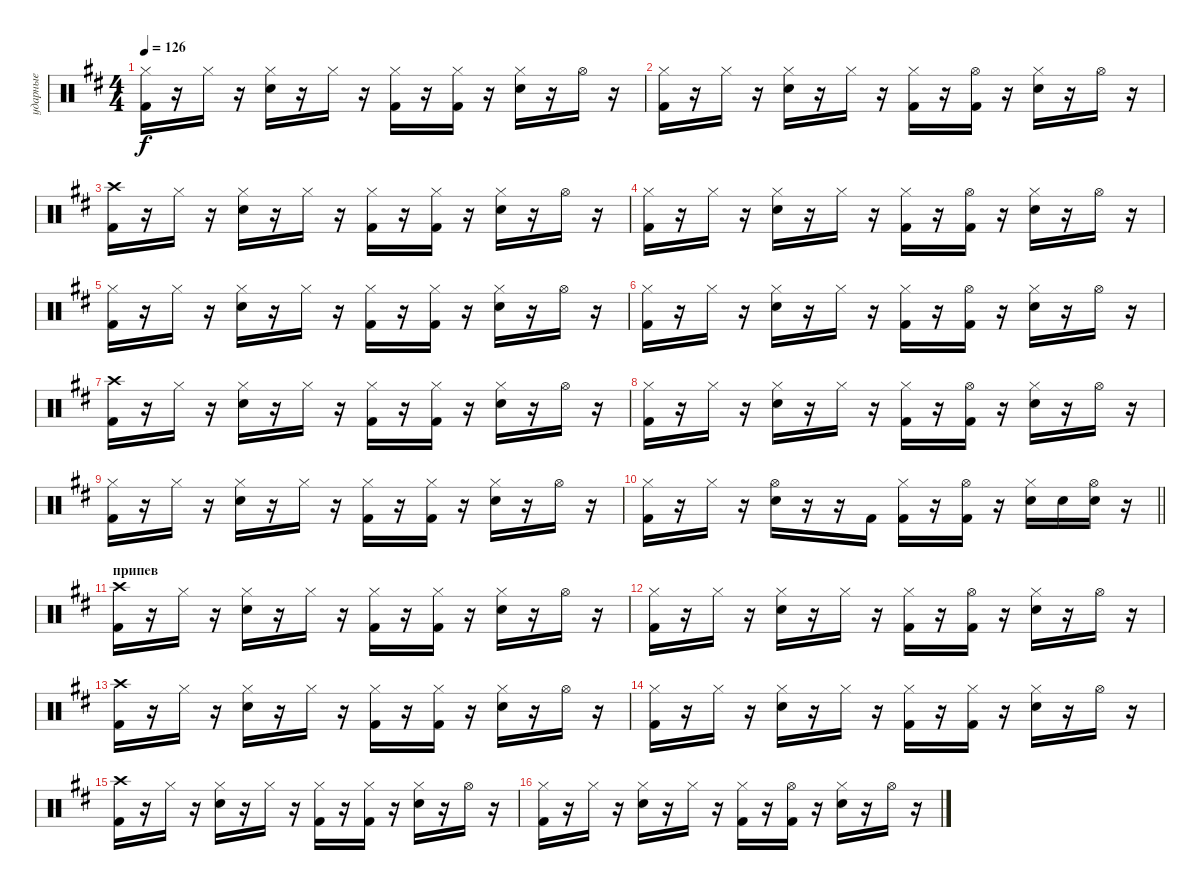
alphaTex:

\track ("ударные" "ударные") {instrument percussion}
\staff {score}
\articulation defaults
\ts (4 4)
\tempo 126
\clef neutral
\ks d
("Hi-Hat (closed)" "Kick (hit) 2").16{dy f} r.16 "Hi-Hat (closed)".16 r.16 ("Hi-Hat (closed)" "Electric Snare (hit)").16 r.16 "Hi-Hat (closed)".16 r.16 ("Hi-Hat (closed)" "Kick (hit) 2").16 r.16 ("Hi-Hat (closed)" "Kick (hit) 2").16 r.16 ("Hi-Hat (closed)" "Electric Snare (hit)").16 r.16 "Hi-Hat (open)".16 r.16 |
("Hi-Hat (closed)" "Kick (hit) 2").16 r.16 "Hi-Hat (closed)".16 r.16 ("Hi-Hat (closed)" "Electric Snare (hit)").16 r.16 "Hi-Hat (closed)".16 r.16 ("Hi-Hat (closed)" "Kick (hit) 2").16 r.16 ("Hi-Hat (open)" "Kick (hit) 2").16 r.16 ("Hi-Hat (closed)" "Electric Snare (hit)").16 r.16 "Hi-Hat (open)".16 r.16 |
("Crash high (hit)" "Kick (hit) 2").16 r.16 "Hi-Hat (closed)".16 r.16 ("Hi-Hat (closed)" "Electric Snare (hit)").16 r.16 "Hi-Hat (closed)".16 r.16 ("Hi-Hat (closed)" "Kick (hit) 2").16 r.16 ("Hi-Hat (closed)" "Kick (hit) 2").16 r.16 ("Hi-Hat (closed)" "Electric Snare (hit)").16 r.16 "Hi-Hat (open)".16 r.16 |
("Hi-Hat (closed)" "Kick (hit) 2").16 r.16 "Hi-Hat (closed)".16 r.16 ("Hi-Hat (closed)" "Electric Snare (hit)").16 r.16 "Hi-Hat (closed)".16 r.16 ("Hi-Hat (closed)" "Kick (hit) 2").16 r.16 ("Hi-Hat (open)" "Kick (hit) 2").16 r.16 ("Hi-Hat (closed)" "Electric Snare (hit)").16 r.16 "Hi-Hat (open)".16 r.16 |
("Hi-Hat (closed)" "Kick (hit) 2").16 r.16 "Hi-Hat (closed)".16 r.16 ("Hi-Hat (closed)" "Electric Snare (hit)").16 r.16 "Hi-Hat (closed)".16 r.16 ("Hi-Hat (closed)" "Kick (hit) 2").16 r.16 ("Hi-Hat (closed)" "Kick (hit) 2").16 r.16 ("Hi-Hat (closed)" "Electric Snare (hit)").16 r.16 "Hi-Hat (open)".16 r.16 |
("Hi-Hat (closed)" "Kick (hit) 2").16 r.16 "Hi-Hat (closed)".16 r.16 ("Hi-Hat (closed)" "Electric Snare (hit)").16 r.16 "Hi-Hat (closed)".16 r.16 ("Hi-Hat (closed)" "Kick (hit) 2").16 r.16 ("Hi-Hat (open)" "Kick (hit) 2").16 r.16 ("Hi-Hat (closed)" "Electric Snare (hit)").16 r.16 "Hi-Hat (open)".16 r.16 |
("Crash high (hit)" "Kick (hit) 2").16 r.16 "Hi-Hat (closed)".16 r.16 ("Hi-Hat (closed)" "Electric Snare (hit)").16 r.16 "Hi-Hat (closed)".16 r.16 ("Hi-Hat (closed)" "Kick (hit) 2").16 r.16 ("Hi-Hat (closed)" "Kick (hit) 2").16 r.16 ("Hi-Hat (closed)" "Electric Snare (hit)").16 r.16 "Hi-Hat (open)".16 r.16 |
("Hi-Hat (closed)" "Kick (hit) 2").16 r.16 "Hi-Hat (closed)".16 r.16 ("Hi-Hat (closed)" "Electric Snare (hit)").16 r.16 "Hi-Hat (closed)".16 r.16 ("Hi-Hat (closed)" "Kick (hit) 2").16 r.16 ("Hi-Hat (open)" "Kick (hit) 2").16 r.16 ("Hi-Hat (closed)" "Electric Snare (hit)").16 r.16 "Hi-Hat (open)".16 r.16 |
("Hi-Hat (closed)" "Kick (hit) 2").16 r.16 "Hi-Hat (closed)".16 r.16 ("Hi-Hat (closed)" "Electric Snare (hit)").16 r.16 "Hi-Hat (closed)".16 r.16 ("Hi-Hat (closed)" "Kick (hit) 2").16 r.16 ("Hi-Hat (closed)" "Kick (hit) 2").16 r.16 ("Hi-Hat (closed)" "Electric Snare (hit)").16 r.16 "Hi-Hat (open)".16 r.16 |
\barLineRight lightlight
("Hi-Hat (closed)" "Kick (hit) 2").16 r.16 "Hi-Hat (closed)".16 r.16 ("Hi-Hat (open)" "Electric Snare (hit)").16 r.16 r.16 "Kick (hit) 2".16 ("Hi-Hat (closed)" "Kick (hit) 2").16 r.16 ("Hi-Hat (open)" "Kick (hit) 2").16 r.16 ("Hi-Hat (closed)" "Electric Snare (hit)").16 "Electric Snare (hit)".16 ("Electric Snare (hit)" "Hi-Hat (open)").16 r.16 |
\section ("" "припев")
("Crash high (hit)" "Kick (hit) 2").16 r.16 "Hi-Hat (closed)".16 r.16 ("Hi-Hat (closed)" "Electric Snare (hit)").16 r.16 "Hi-Hat (closed)".16 r.16 ("Hi-Hat (closed)" "Kick (hit) 2").16 r.16 ("Hi-Hat (closed)" "Kick (hit) 2").16 r.16 ("Hi-Hat (closed)" "Electric Snare (hit)").16 r.16 "Hi-Hat (open)".16 r.16 |
("Hi-Hat (closed)" "Kick (hit) 2").16 r.16 "Hi-Hat (closed)".16 r.16 ("Hi-Hat (closed)" "Electric Snare (hit)").16 r.16 "Hi-Hat (closed)".16 r.16 ("Hi-Hat (closed)" "Kick (hit) 2").16 r.16 ("Hi-Hat (open)" "Kick (hit) 2").16 r.16 ("Hi-Hat (closed)" "Electric Snare (hit)").16 r.16 "Hi-Hat (open)".16 r.16 |
("Crash high (hit)" "Kick (hit) 2").16 r.16 "Hi-Hat (closed)".16 r.16 ("Hi-Hat (closed)" "Electric Snare (hit)").16 r.16 "Hi-Hat (closed)".16 r.16 ("Hi-Hat (closed)" "Kick (hit) 2").16 r.16 ("Hi-Hat (closed)" "Kick (hit) 2").16 r.16 ("Hi-Hat (closed)" "Electric Snare (hit)").16 r.16 "Hi-Hat (open)".16 r.16 |
("Hi-Hat (closed)" "Kick (hit) 2").16 r.16 "Hi-Hat (closed)".16 r.16 ("Hi-Hat (closed)" "Electric Snare (hit)").16 r.16 "Hi-Hat (closed)".16 r.16 ("Hi-Hat (closed)" "Kick (hit) 2").16 r.16 ("Hi-Hat (closed)" "Kick (hit) 2").16 r.16 ("Hi-Hat (closed)" "Electric Snare (hit)").16 r.16 "Hi-Hat (open)".16 r.16 |
("Crash high (hit)" "Kick (hit) 2").16 r.16 "Hi-Hat (closed)".16 r.16 ("Hi-Hat (closed)" "Electric Snare (hit)").16 r.16 "Hi-Hat (closed)".16 r.16 ("Hi-Hat (closed)" "Kick (hit) 2").16 r.16 ("Hi-Hat (closed)" "Kick (hit) 2").16 r.16 ("Hi-Hat (closed)" "Electric Snare (hit)").16 r.16 "Hi-Hat (open)".16 r.16 |
("Hi-Hat (closed)" "Kick (hit) 2").16 r.16 "Hi-Hat (closed)".16 r.16 ("Hi-Hat (closed)" "Electric Snare (hit)").16 r.16 "Hi-Hat (closed)".16 r.16 ("Hi-Hat (closed)" "Kick (hit) 2").16 r.16 ("Hi-Hat (open)" "Kick (hit) 2").16 r.16 ("Hi-Hat (closed)" "Electric Snare (hit)").16 r.16 "Hi-Hat (open)".16 r.16
